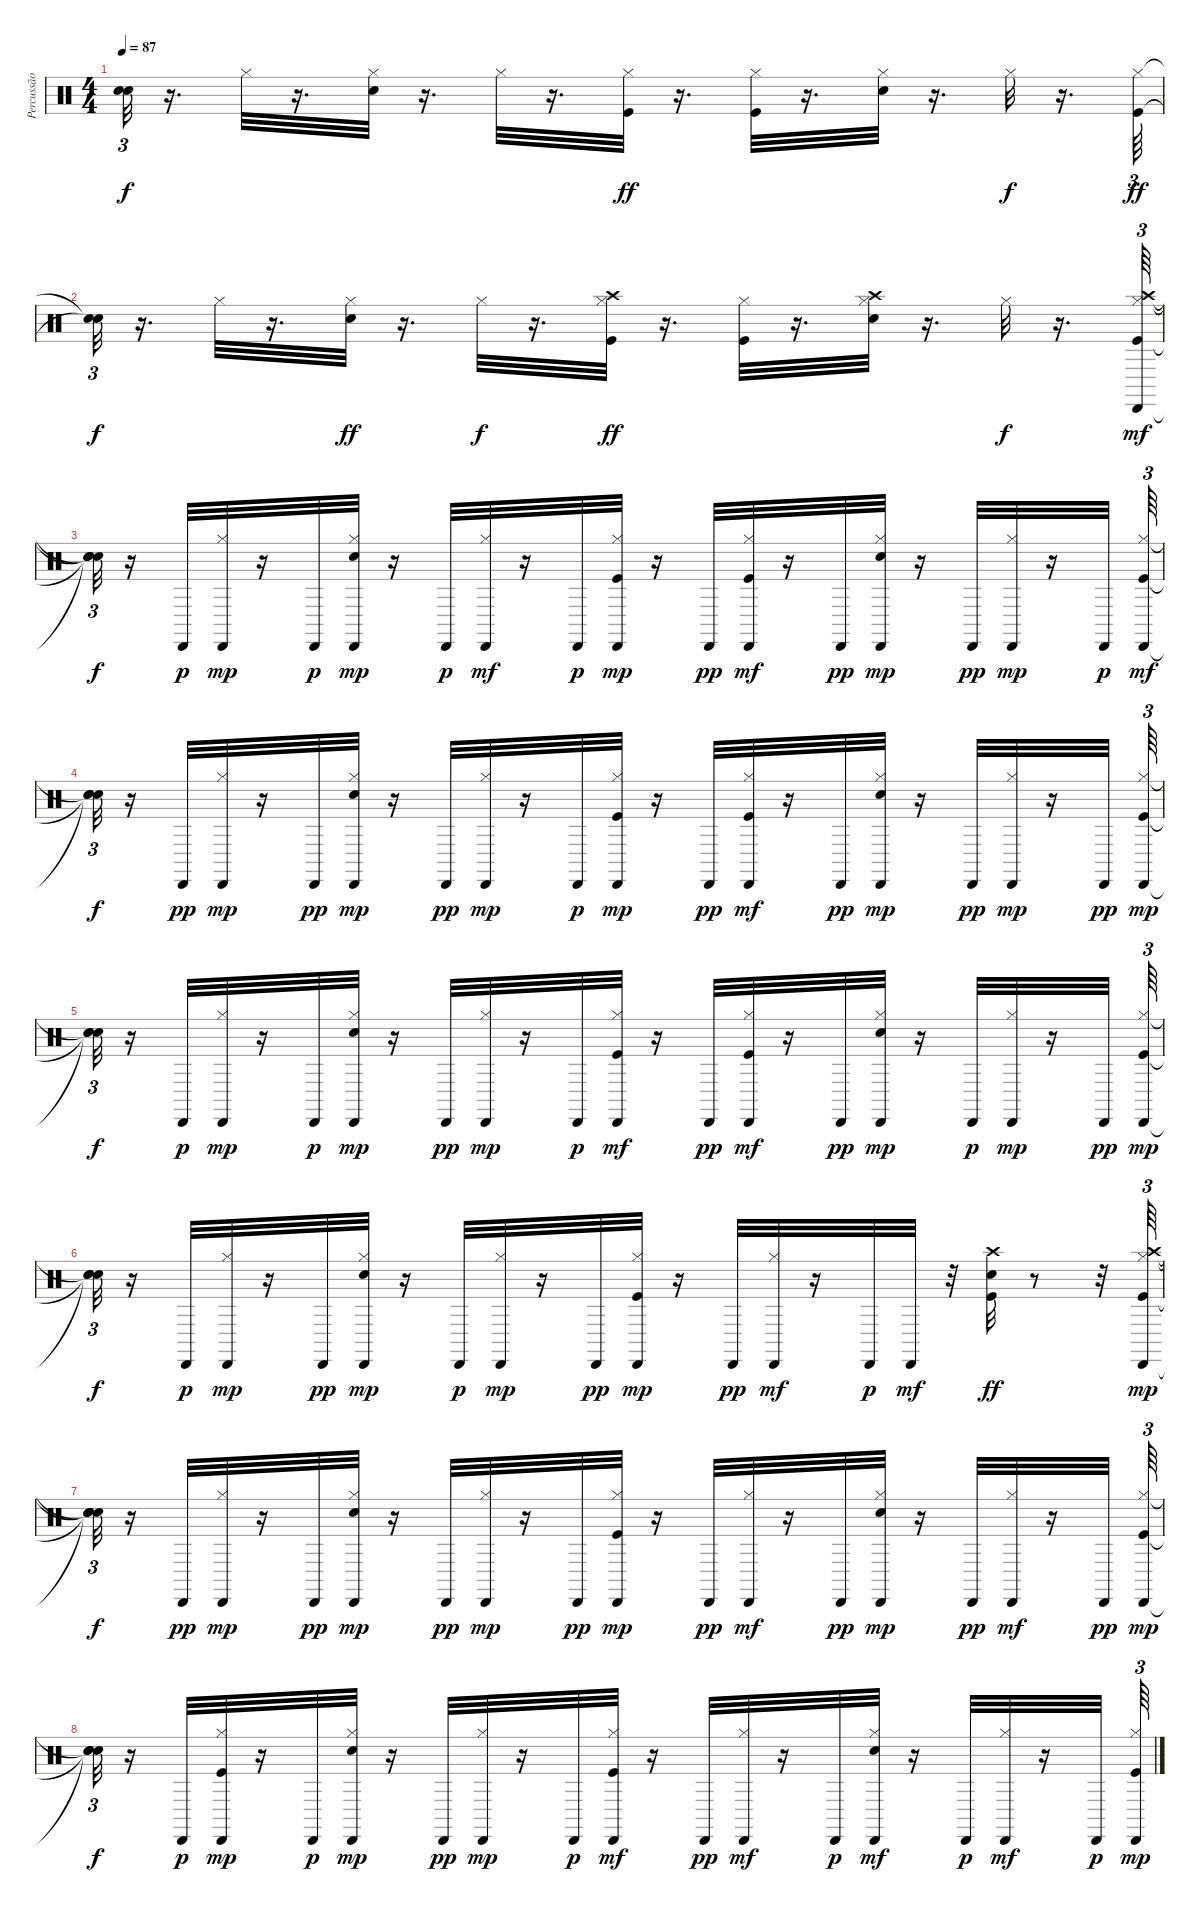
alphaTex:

\track ("Percussão" "Percussão") {instrument percussion}
\staff {score}
\articulation defaults
\ts (4 4)
\tempo 87
\clef neutral
\ks c
("Snare (hit)"{t} "Snare (hit)"{t}).32{tu (3 2) dy f} r.16{d} "Hi-Hat (closed)".32 r.16{d} ("Electric Snare (hit)" "Hi-Hat (closed)").32 r.16{d} "Hi-Hat (closed)".32 r.16{d} ("Kick (hit)" "Hi-Hat (closed)").32{dy ff} r.16{d} ("Kick (hit)" "Hi-Hat (closed)").32 r.16{d} ("Electric Snare (hit)" "Hi-Hat (closed)").32 r.16{d} "Hi-Hat (closed)".32{dy f} r.16{d} ("Kick (hit)" "Hi-Hat (closed)").64{tu (3 2) dy ff} |
("Snare (hit)"{t} "Snare (hit)"{t}).32{tu (3 2) dy f} r.16{d} "Hi-Hat (closed)".32 r.16{d} ("Electric Snare (hit)" "Hi-Hat (closed)").32{dy ff} r.16{d} "Hi-Hat (closed)".32{dy f} r.16{d} ("Kick (hit)" "Hi-Hat (closed)" "Crash high (hit)").32{dy ff} r.16{d} ("Kick (hit)" "Hi-Hat (closed)").32 r.16{d} ("Electric Snare (hit)" "Hi-Hat (closed)" "Crash high (hit)").32 r.16{d} "Hi-Hat (closed)".32{dy f} r.16{d} ("Kick (hit)" "Hi-Hat (closed)" "Crash high (hit)" "Cabasa (hit)").64{tu (3 2) dy mf} |
("Snare (hit)"{t} "Snare (hit)"{t} "Snare (hit)"{t} "Snare (hit)"{t}).32{tu (3 2) dy f} r.16 "Cabasa (hit)".32{dy p} ("Hi-Hat (closed)" "Cabasa (hit)").32{dy mp} r.16 "Cabasa (hit)".32{dy p} ("Electric Snare (hit)" "Hi-Hat (closed)" "Cabasa (hit)").32{dy mp} r.16 "Cabasa (hit)".32{dy p} ("Hi-Hat (closed)" "Cabasa (hit)").32{dy mf} r.16 "Cabasa (hit)".32{dy p} ("Kick (hit)" "Hi-Hat (closed)" "Cabasa (hit)").32{dy mp} r.16 "Cabasa (hit)".32{dy pp} ("Kick (hit)" "Hi-Hat (closed)" "Cabasa (hit)").32{dy mf} r.16 "Cabasa (hit)".32{dy pp} ("Electric Snare (hit)" "Hi-Hat (closed)" "Cabasa (hit)").32{dy mp} r.16 "Cabasa (hit)".32{dy pp} ("Hi-Hat (closed)" "Cabasa (hit)").32{dy mp} r.16 "Cabasa (hit)".32{dy p} ("Kick (hit)" "Hi-Hat (closed)" "Cabasa (hit)").64{tu (3 2) dy mf} |
("Snare (hit)"{t} "Snare (hit)"{t} "Snare (hit)"{t}).32{tu (3 2) dy f} r.16 "Cabasa (hit)".32{dy pp} ("Hi-Hat (closed)" "Cabasa (hit)").32{dy mp} r.16 "Cabasa (hit)".32{dy pp} ("Electric Snare (hit)" "Hi-Hat (closed)" "Cabasa (hit)").32{dy mp} r.16 "Cabasa (hit)".32{dy pp} ("Hi-Hat (closed)" "Cabasa (hit)").32{dy mp} r.16 "Cabasa (hit)".32{dy p} ("Kick (hit)" "Hi-Hat (closed)" "Cabasa (hit)").32{dy mp} r.16 "Cabasa (hit)".32{dy pp} ("Kick (hit)" "Hi-Hat (closed)" "Cabasa (hit)").32{dy mf} r.16 "Cabasa (hit)".32{dy pp} ("Electric Snare (hit)" "Hi-Hat (closed)" "Cabasa (hit)").32{dy mp} r.16 "Cabasa (hit)".32{dy pp} ("Hi-Hat (closed)" "Cabasa (hit)").32{dy mp} r.16 "Cabasa (hit)".32{dy pp} ("Kick (hit)" "Hi-Hat (closed)" "Cabasa (hit)").64{tu (3 2) dy mp} |
("Snare (hit)"{t} "Snare (hit)"{t} "Snare (hit)"{t}).32{tu (3 2) dy f} r.16 "Cabasa (hit)".32{dy p} ("Hi-Hat (closed)" "Cabasa (hit)").32{dy mp} r.16 "Cabasa (hit)".32{dy p} ("Electric Snare (hit)" "Hi-Hat (closed)" "Cabasa (hit)").32{dy mp} r.16 "Cabasa (hit)".32{dy pp} ("Hi-Hat (closed)" "Cabasa (hit)").32{dy mp} r.16 "Cabasa (hit)".32{dy p} ("Kick (hit)" "Hi-Hat (closed)" "Cabasa (hit)").32{dy mf} r.16 "Cabasa (hit)".32{dy pp} ("Kick (hit)" "Hi-Hat (closed)" "Cabasa (hit)").32{dy mf} r.16 "Cabasa (hit)".32{dy pp} ("Electric Snare (hit)" "Hi-Hat (closed)" "Cabasa (hit)").32{dy mp} r.16 "Cabasa (hit)".32{dy p} ("Hi-Hat (closed)" "Cabasa (hit)").32{dy mp} r.16 "Cabasa (hit)".32{dy pp} ("Kick (hit)" "Hi-Hat (closed)" "Cabasa (hit)").64{tu (3 2) dy mp} |
("Snare (hit)"{t} "Snare (hit)"{t} "Snare (hit)"{t}).32{tu (3 2) dy f} r.16 "Cabasa (hit)".32{dy p} ("Hi-Hat (closed)" "Cabasa (hit)").32{dy mp} r.16 "Cabasa (hit)".32{dy pp} ("Electric Snare (hit)" "Hi-Hat (closed)" "Cabasa (hit)").32{dy mp} r.16 "Cabasa (hit)".32{dy p} ("Hi-Hat (closed)" "Cabasa (hit)").32{dy mp} r.16 "Cabasa (hit)".32{dy pp} ("Kick (hit)" "Hi-Hat (closed)" "Cabasa (hit)").32{dy mp} r.16 "Cabasa (hit)".32{dy pp} ("Hi-Hat (closed)" "Cabasa (hit)").32{dy mf} r.16 "Cabasa (hit)".32{dy p} "Cabasa (hit)".32{dy mf} r.32 ("Kick (hit)" "Electric Snare (hit)" "Crash high (hit)").32{dy ff} r.8 r.32 ("Kick (hit)" "Hi-Hat (closed)" "Crash high (hit)" "Cabasa (hit)").64{tu (3 2) dy mp} |
("Snare (hit)"{t} "Snare (hit)"{t} "Snare (hit)"{t} "Snare (hit)"{t}).32{tu (3 2) dy f} r.16 "Cabasa (hit)".32{dy pp} ("Hi-Hat (closed)" "Cabasa (hit)").32{dy mp} r.16 "Cabasa (hit)".32{dy pp} ("Electric Snare (hit)" "Hi-Hat (closed)" "Cabasa (hit)").32{dy mp} r.16 "Cabasa (hit)".32{dy pp} ("Hi-Hat (closed)" "Cabasa (hit)").32{dy mp} r.16 "Cabasa (hit)".32{dy pp} ("Kick (hit)" "Hi-Hat (closed)" "Cabasa (hit)").32{dy mp} r.16 "Cabasa (hit)".32{dy pp} ("Hi-Hat (closed)" "Cabasa (hit)").32{dy mf} r.16 "Cabasa (hit)".32{dy pp} ("Electric Snare (hit)" "Hi-Hat (closed)" "Cabasa (hit)").32{dy mp} r.16 "Cabasa (hit)".32{dy pp} ("Hi-Hat (closed)" "Cabasa (hit)").32{dy mf} r.16 "Cabasa (hit)".32{dy pp} ("Kick (hit)" "Hi-Hat (closed)" "Cabasa (hit)").64{tu (3 2) dy mp} |
("Snare (hit)"{t} "Snare (hit)"{t} "Snare (hit)"{t}).32{tu (3 2) dy f} r.16 "Cabasa (hit)".32{dy p} ("Kick (hit)" "Hi-Hat (closed)" "Cabasa (hit)").32{dy mp} r.16 "Cabasa (hit)".32{dy p} ("Electric Snare (hit)" "Hi-Hat (closed)" "Cabasa (hit)").32{dy mp} r.16 "Cabasa (hit)".32{dy pp} ("Hi-Hat (closed)" "Cabasa (hit)").32{dy mp} r.16 "Cabasa (hit)".32{dy p} ("Kick (hit)" "Hi-Hat (closed)" "Cabasa (hit)").32{dy mf} r.16 "Cabasa (hit)".32{dy pp} ("Hi-Hat (closed)" "Cabasa (hit)").32{dy mf} r.16 "Cabasa (hit)".32{dy p} ("Electric Snare (hit)" "Hi-Hat (closed)" "Cabasa (hit)").32{dy mf} r.16 "Cabasa (hit)".32{dy p} ("Hi-Hat (closed)" "Cabasa (hit)").32{dy mf} r.16 "Cabasa (hit)".32{dy p} ("Kick (hit)" "Hi-Hat (closed)" "Cabasa (hit)").64{tu (3 2) dy mp}
